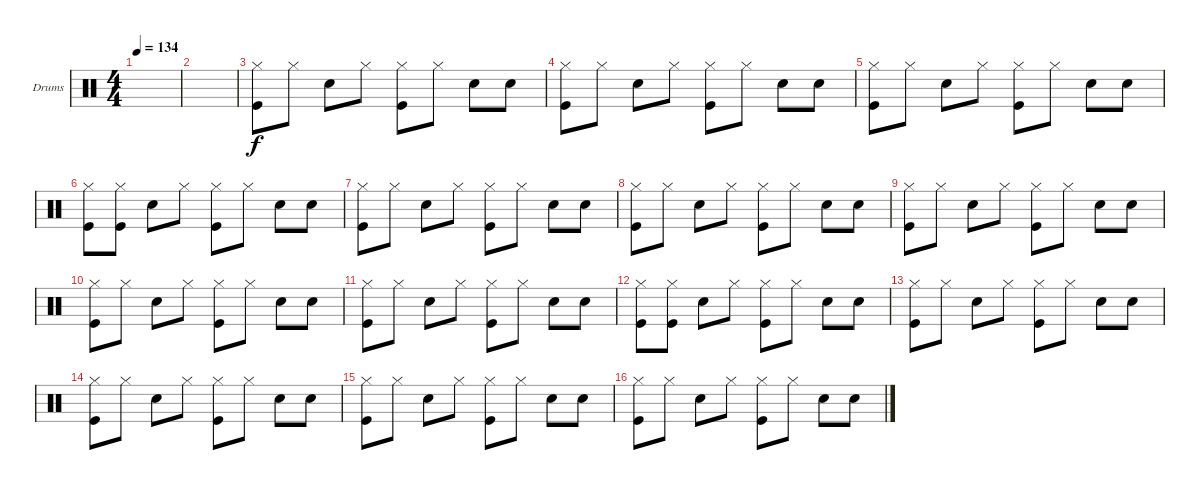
\defaultSystemsLayout 4
\bracketExtendMode groupsimilarinstruments
\firstSystemTrackNameOrientation horizontal
\otherSystemsTrackNameOrientation horizontal
\track ("Гурьянов" "Drums") {instrument percussion}
\staff {score}
\articulation defaults
\ts (4 4)
\tempo 134
\clef neutral
\scale
0.472222
\ks c
|
\scale
0.263889 |
\scale
0.263889 ("Hi-Hat (closed)" "Kick (hit)").8 "Hi-Hat (closed)".8 "Snare (hit) 2".8 "Hi-Hat (closed)".8 ("Hi-Hat (closed)" "Kick (hit)").8 "Hi-Hat (closed)".8 "Snare (hit) 2".8 "Snare (hit) 2".8 |
\scale
0.333333 ("Hi-Hat (closed)" "Kick (hit)").8 "Hi-Hat (closed)".8 "Snare (hit) 2".8 "Hi-Hat (closed)".8 ("Hi-Hat (closed)" "Kick (hit)").8 "Hi-Hat (closed)".8 "Snare (hit) 2".8 "Snare (hit) 2".8 |
\scale
0.333333 ("Hi-Hat (closed)" "Kick (hit)").8 "Hi-Hat (closed)".8 "Snare (hit) 2".8 "Hi-Hat (closed)".8 ("Hi-Hat (closed)" "Kick (hit)").8 "Hi-Hat (closed)".8 "Snare (hit) 2".8 "Snare (hit) 2".8 |
\scale
0.333333 ("Hi-Hat (closed)" "Kick (hit)").8 ("Hi-Hat (closed)" "Kick (hit)").8 "Snare (hit) 2".8 "Hi-Hat (closed)".8 ("Hi-Hat (closed)" "Kick (hit)").8 "Hi-Hat (closed)".8 "Snare (hit) 2".8 "Snare (hit) 2".8 |
\scale
0.333333 ("Hi-Hat (closed)" "Kick (hit)").8 "Hi-Hat (closed)".8 "Snare (hit) 2".8 "Hi-Hat (closed)".8 ("Hi-Hat (closed)" "Kick (hit)").8 "Hi-Hat (closed)".8 "Snare (hit) 2".8 "Snare (hit) 2".8 |
\scale
0.333333 ("Hi-Hat (closed)" "Kick (hit)").8 "Hi-Hat (closed)".8 "Snare (hit) 2".8 "Hi-Hat (closed)".8 ("Hi-Hat (closed)" "Kick (hit)").8 "Hi-Hat (closed)".8 "Snare (hit) 2".8 "Snare (hit) 2".8 |
\scale
0.333333 ("Hi-Hat (closed)" "Kick (hit)").8 "Hi-Hat (closed)".8 "Snare (hit) 2".8 "Hi-Hat (closed)".8 ("Hi-Hat (closed)" "Kick (hit)").8 "Hi-Hat (closed)".8 "Snare (hit) 2".8 "Snare (hit) 2".8 |
\scale
0.333333 ("Hi-Hat (closed)" "Kick (hit)").8 "Hi-Hat (closed)".8 "Snare (hit) 2".8 "Hi-Hat (closed)".8 ("Hi-Hat (closed)" "Kick (hit)").8 "Hi-Hat (closed)".8 "Snare (hit) 2".8 "Snare (hit) 2".8 |
\scale
0.333333 ("Hi-Hat (closed)" "Kick (hit)").8 "Hi-Hat (closed)".8 "Snare (hit) 2".8 "Hi-Hat (closed)".8 ("Hi-Hat (closed)" "Kick (hit)").8 "Hi-Hat (closed)".8 "Snare (hit) 2".8 "Snare (hit) 2".8 |
\scale
0.333333 ("Hi-Hat (closed)" "Kick (hit)").8 ("Hi-Hat (closed)" "Kick (hit)").8 "Snare (hit) 2".8 "Hi-Hat (closed)".8 ("Hi-Hat (closed)" "Kick (hit)").8 "Hi-Hat (closed)".8 "Snare (hit) 2".8 "Snare (hit) 2".8 |
\scale
0.333333 ("Hi-Hat (closed)" "Kick (hit)").8 "Hi-Hat (closed)".8 "Snare (hit) 2".8 "Hi-Hat (closed)".8 ("Hi-Hat (closed)" "Kick (hit)").8 "Hi-Hat (closed)".8 "Snare (hit) 2".8 "Snare (hit) 2".8 |
\scale
0.333333 ("Hi-Hat (closed)" "Kick (hit)").8 "Hi-Hat (closed)".8 "Snare (hit) 2".8 "Hi-Hat (closed)".8 ("Hi-Hat (closed)" "Kick (hit)").8 "Hi-Hat (closed)".8 "Snare (hit) 2".8 "Snare (hit) 2".8 |
\scale
0.333333 ("Hi-Hat (closed)" "Kick (hit)").8 "Hi-Hat (closed)".8 "Snare (hit) 2".8 "Hi-Hat (closed)".8 ("Hi-Hat (closed)" "Kick (hit)").8 "Hi-Hat (closed)".8 "Snare (hit) 2".8 "Snare (hit) 2".8 |
\scale
0.333333 ("Hi-Hat (closed)" "Kick (hit)").8 "Hi-Hat (closed)".8 "Snare (hit) 2".8 "Hi-Hat (closed)".8 ("Hi-Hat (closed)" "Kick (hit)").8 "Hi-Hat (closed)".8 "Snare (hit) 2".8 "Snare (hit) 2".8
